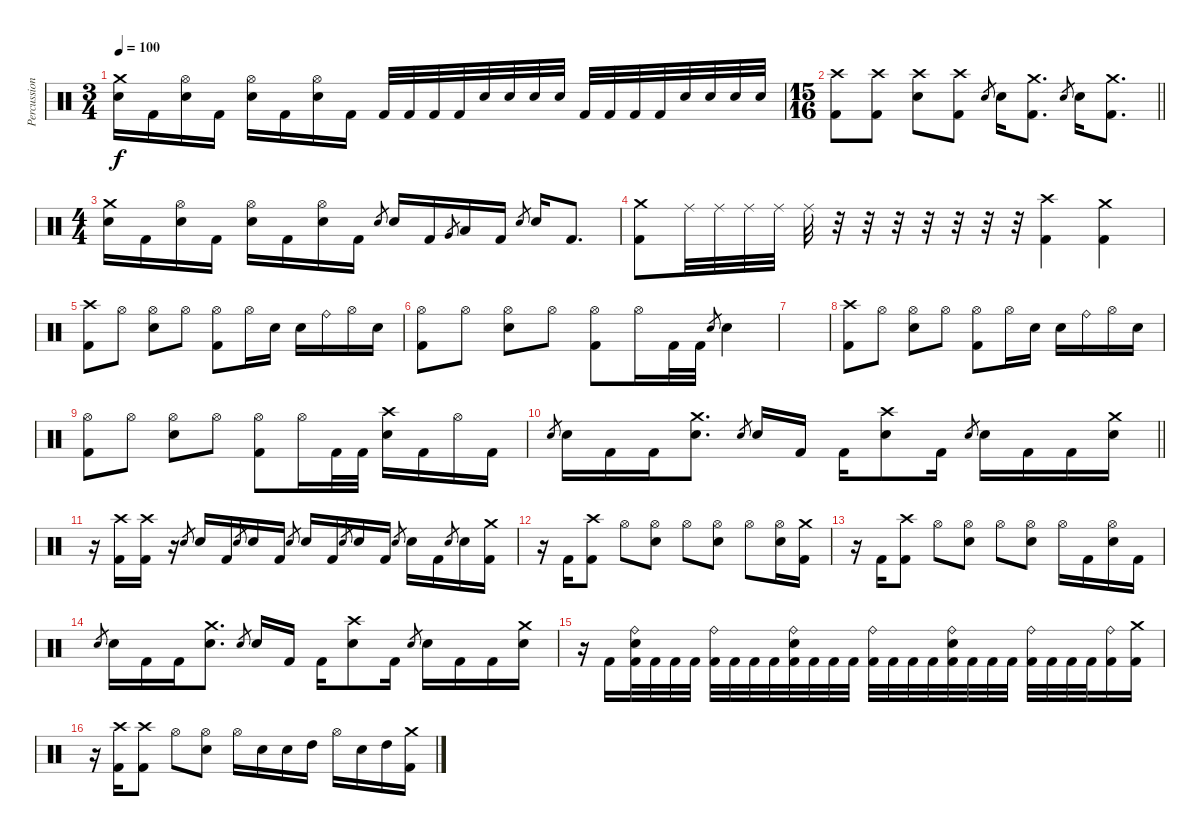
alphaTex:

\track ("Percussion (Moose)" "Percussion") {instrument percussion}
\staff {score}
\articulation defaults
\ts (3 4)
\tempo 100
\clef neutral
\ks c
("Crash medium (hit)" "Electric Snare (hit)").16{dy f} "Kick (hit) 2".16 ("Hi-Hat (open)" "Electric Snare (hit)").16 "Kick (hit) 2".16 ("Hi-Hat (open)" "Electric Snare (hit)").16 "Kick (hit) 2".16 ("Hi-Hat (open)" "Electric Snare (hit)").16 "Kick (hit) 2".16 "Kick (hit) 2".32 "Kick (hit) 2".32 "Kick (hit) 2".32 "Kick (hit) 2".32 "Electric Snare (hit)".32 "Electric Snare (hit)".32 "Electric Snare (hit)".32 "Electric Snare (hit)".32 "Kick (hit) 2".32 "Kick (hit) 2".32 "Kick (hit) 2".32 "Kick (hit) 2".32 "Electric Snare (hit)".32 "Electric Snare (hit)".32 "Electric Snare (hit)".32 "Electric Snare (hit)".32 |
\ts (15 16)
\barLineRight lightlight
("Crash high (hit)" "Kick (hit) 2").8 ("Crash high (hit)" "Kick (hit) 2").8 ("Crash high (hit)" "Electric Snare (hit)").8 ("Crash high (hit)" "Kick (hit) 2").8 "Electric Snare (hit)".8{gr} "Electric Snare (hit)".16 ("Crash medium (hit)" "Kick (hit) 2").8{d} "Electric Snare (hit)".8{gr} "Electric Snare (hit)".16 ("Crash medium (hit)" "Kick (hit) 2").8{d} |
\ts (4 4)
("Crash medium (hit)" "Electric Snare (hit)").16 "Kick (hit) 2".16 ("Hi-Hat (open)" "Electric Snare (hit)").16 "Kick (hit) 2".16 ("Hi-Hat (open)" "Electric Snare (hit)").16 "Kick (hit) 2".16 ("Hi-Hat (open)" "Electric Snare (hit)").16 "Kick (hit) 2".16 "Electric Snare (hit)".8{gr} "Electric Snare (hit)".16 "Kick (hit) 2".16 "Very Low Tom (hit)".8{gr} "Low Floor Tom (hit)".16 "Kick (hit) 2".16 "Electric Snare (hit)".8{gr} "Electric Snare (hit)".16 "Kick (hit) 2".8{d} |
("Crash medium (hit)" "Kick (hit) 2").8 "Ride (middle)".32 "Ride (middle)".32 "Ride (middle)".32 "Ride (middle)".32 "Ride (middle)".32 r.32 r.32 r.32 r.32 r.32 r.32 r.32 ("Crash high (hit)" "Kick (hit) 2").4 ("Crash medium (hit)" "Kick (hit) 2").4 |
("Crash high (hit)" "Kick (hit) 2").8 "Hi-Hat (open)".8 ("Hi-Hat (open)" "Electric Snare (hit)").8 "Hi-Hat (open)".8 ("Hi-Hat (open)" "Kick (hit) 2").8 "Hi-Hat (open)".16 "Electric Snare (hit)".16 "Electric Snare (hit)".16 "Ride (bell)".16 "Hi-Hat (open)".16 "Electric Snare (hit)".16 |
("Hi-Hat (open)" "Kick (hit) 2").8 "Hi-Hat (open)".8 ("Hi-Hat (open)" "Electric Snare (hit)").8 "Hi-Hat (open)".8 ("Hi-Hat (open)" "Kick (hit) 2").8 "Hi-Hat (open)".16 "Kick (hit) 2".32 "Kick (hit) 2".32 "Electric Snare (hit)".8{gr} "Electric Snare (hit)".4 |
|
("Crash high (hit)" "Kick (hit) 2").8 "Hi-Hat (open)".8 ("Hi-Hat (open)" "Electric Snare (hit)").8 "Hi-Hat (open)".8 ("Hi-Hat (open)" "Kick (hit) 2").8 "Hi-Hat (open)".16 "Electric Snare (hit)".16 "Electric Snare (hit)".16 "Ride (bell)".16 "Hi-Hat (open)".16 "Electric Snare (hit)".16 |
("Hi-Hat (open)" "Kick (hit) 2").8 "Hi-Hat (open)".8 ("Hi-Hat (open)" "Electric Snare (hit)").8 "Hi-Hat (open)".8 ("Hi-Hat (open)" "Kick (hit) 2").8 "Hi-Hat (open)".16 "Kick (hit) 2".32 "Kick (hit) 2".32 ("Crash high (hit)" "Electric Snare (hit)").16 "Kick (hit) 2".16 "Hi-Hat (open)".16 "Kick (hit) 2".16 |
\barLineRight lightlight "Electric Snare (hit)".8{gr} "Electric Snare (hit)".16 "Kick (hit) 2".16 "Kick (hit) 2".16
("Crash medium (hit)" "Electric Snare (hit)").8{d} "Electric Snare (hit)".8{gr} "Electric Snare (hit)".16 "Kick (hit) 2".16 "Kick (hit) 2".16 ("Crash high (hit)" "Electric Snare (hit)").8 "Kick (hit) 2".16 "Electric Snare (hit)".8{gr} "Electric Snare (hit)".16 "Kick (hit) 2".16 "Kick (hit) 2".16 ("Crash medium (hit)" "Electric Snare (hit)").16 |
r.16 ("Crash high (hit)" "Kick (hit) 2").16 ("Crash high (hit)" "Kick (hit) 2").16 r.16 "Electric Snare (hit)".8{gr} "Electric Snare (hit)".16 "Kick (hit) 2".16 "Electric Snare (hit)".8{gr} "Electric Snare (hit)".16 "Kick (hit) 2".16 "Electric Snare (hit)".8{gr} "Electric Snare (hit)".16 "Kick (hit) 2".16 "Electric Snare (hit)".8{gr} "Electric Snare (hit)".16 "Kick (hit) 2".16 "Electric Snare (hit)".8{gr} "Electric Snare (hit)".16 "Kick (hit) 2".16 "Electric Snare (hit)".8{gr} "Electric Snare (hit)".16 ("Crash medium (hit)" "Kick (hit) 2").16 |
r.16 "Kick (hit) 2".16 ("Crash high (hit)" "Kick (hit) 2").8 "Hi-Hat (open)".8 ("Hi-Hat (open)" "Electric Snare (hit)").8 "Hi-Hat (open)".8 ("Hi-Hat (open)" "Electric Snare (hit)").8 "Hi-Hat (open)".8 ("Hi-Hat (open)" "Electric Snare (hit)").16 ("Crash medium (hit)" "Kick (hit) 2").16 |
r.16 "Kick (hit) 2".16 ("Crash high (hit)" "Kick (hit) 2").8 "Hi-Hat (open)".8 ("Hi-Hat (open)" "Electric Snare (hit)").8 "Hi-Hat (open)".8 ("Hi-Hat (open)" "Electric Snare (hit)").8 "Hi-Hat (open)".16 "Kick (hit) 2".16 ("Hi-Hat (open)" "Electric Snare (hit)").16 "Kick (hit) 2".16 |
"Electric Snare (hit)".8{gr} "Electric Snare (hit)".16 "Kick (hit) 2".16 "Kick (hit) 2".16 ("Crash medium (hit)" "Electric Snare (hit)").8{d} "Electric Snare (hit)".8{gr} "Electric Snare (hit)".16 "Kick (hit) 2".16 "Kick (hit) 2".16 ("Crash high (hit)" "Electric Snare (hit)").8 "Kick (hit) 2".16 "Electric Snare (hit)".8{gr} "Electric Snare (hit)".16 "Kick (hit) 2".16 "Kick (hit) 2".16 ("Crash medium (hit)" "Electric Snare (hit)").16 |
r.16 "Kick (hit) 2".16 ("Ride (bell)" "Electric Snare (hit)" "Kick (hit) 2").32 "Kick (hit) 2".32 "Kick (hit) 2".32 "Kick (hit) 2".32 ("Ride (bell)" "Kick (hit) 2").32 "Kick (hit) 2".32 "Kick (hit) 2".32 "Kick (hit) 2".32 ("Ride (bell)" "Electric Snare (hit)" "Kick (hit) 2").32 "Kick (hit) 2".32 "Kick (hit) 2".32 "Kick (hit) 2".32 ("Ride (bell)" "Kick (hit) 2").32 "Kick (hit) 2".32 "Kick (hit) 2".32 "Kick (hit) 2".32 ("Ride (bell)" "Electric Snare (hit)" "Kick (hit) 2").32 "Kick (hit) 2".32 "Kick (hit) 2".32 "Kick (hit) 2".32 ("Ride (bell)" "Kick (hit) 2").32 "Kick (hit) 2".32 "Kick (hit) 2".32 "Kick (hit) 2".32 ("Ride (bell)" "Kick (hit) 2").16 ("Crash medium (hit)" "Kick (hit) 2").16 |
r.16 ("Crash high (hit)" "Kick (hit) 2").16 ("Crash high (hit)" "Kick (hit) 2").8 "Hi-Hat (open)".8 ("Hi-Hat (open)" "Electric Snare (hit)").8 "Hi-Hat (open)".16 "Electric Snare (hit)".16 "Electric Snare (hit)".16 "High Tom (hit)".16 "Hi-Hat (open)".16 "Electric Snare (hit)".16 "High Tom (hit)".16 ("Crash medium (hit)" "Kick (hit) 2").16
